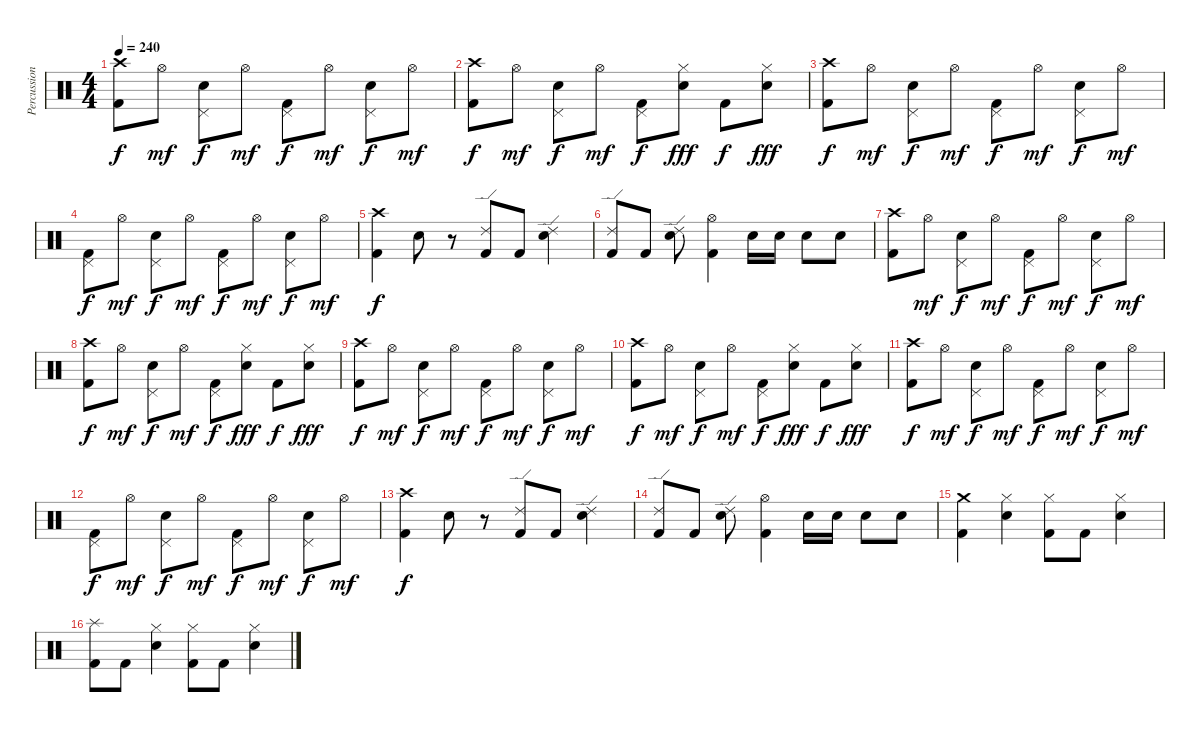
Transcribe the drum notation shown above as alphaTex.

\track ("Percussion" "Percussion") {instrument percussion}
\staff {score}
\articulation defaults
\ts (4 4)
\tempo 240
\clef neutral
\ks c
("Crash high (hit)" "Kick (hit) 2").8{dy f} "Hi-Hat (open)".8{dy mf} ("Pedal Hi-Hat (hit)" "Snare (hit) 2").8{dy f} "Hi-Hat (open)".8{dy mf} ("Pedal Hi-Hat (hit)" "Kick (hit) 2").8{dy f} "Hi-Hat (open)".8{dy mf} ("Pedal Hi-Hat (hit)" "Snare (hit) 2").8{dy f} "Hi-Hat (open)".8{dy mf} |
("Crash high (hit)" "Kick (hit) 2").8{dy f} "Hi-Hat (open)".8{dy mf} ("Pedal Hi-Hat (hit)" "Snare (hit) 2").8{dy f} "Hi-Hat (open)".8{dy mf} ("Pedal Hi-Hat (hit)" "Kick (hit) 2").8{dy f} ("Hi-Hat (closed)" "Snare (hit) 2").8{dy fff} "Kick (hit) 2".8{dy f} ("Hi-Hat (closed)" "Snare (hit) 2").8{dy fff} |
("Crash high (hit)" "Kick (hit) 2").8{dy f} "Hi-Hat (open)".8{dy mf} ("Pedal Hi-Hat (hit)" "Snare (hit) 2").8{dy f} "Hi-Hat (open)".8{dy mf} ("Pedal Hi-Hat (hit)" "Kick (hit) 2").8{dy f} "Hi-Hat (open)".8{dy mf} ("Pedal Hi-Hat (hit)" "Snare (hit) 2").8{dy f} "Hi-Hat (open)".8{dy mf} |
("Pedal Hi-Hat (hit)" "Kick (hit) 2").8{dy f} "Hi-Hat (open)".8{dy mf} ("Pedal Hi-Hat (hit)" "Snare (hit) 2").8{dy f} "Hi-Hat (open)".8{dy mf} ("Pedal Hi-Hat (hit)" "Kick (hit) 2").8{dy f} "Hi-Hat (open)".8{dy mf} ("Pedal Hi-Hat (hit)" "Snare (hit) 2").8{dy f} "Hi-Hat (open)".8{dy mf} |
("Crash high (hit)" "Kick (hit) 2").4{dy f} "Electric Snare (hit)".8 r.8 ("Ride (edge) 2" "Kick (hit) 2").8 "Kick (hit) 2".8 ("Ride (edge) 2" "Electric Snare (hit)").4 |
("Ride (edge) 2" "Kick (hit) 2").8 "Kick (hit) 2".8 ("Ride (edge) 2" "Electric Snare (hit)").8 ("Hi-Hat (open)" "Kick (hit) 2").4 "Snare (hit) 2".16 "Snare (hit) 2".16 "Snare (hit) 2".8 "Snare (hit) 2".8 |
("Crash high (hit)" "Kick (hit) 2").8 "Hi-Hat (open)".8{dy mf} ("Pedal Hi-Hat (hit)" "Snare (hit) 2").8{dy f} "Hi-Hat (open)".8{dy mf} ("Pedal Hi-Hat (hit)" "Kick (hit) 2").8{dy f} "Hi-Hat (open)".8{dy mf} ("Pedal Hi-Hat (hit)" "Snare (hit) 2").8{dy f} "Hi-Hat (open)".8{dy mf} |
("Crash high (hit)" "Kick (hit) 2").8{dy f} "Hi-Hat (open)".8{dy mf} ("Pedal Hi-Hat (hit)" "Snare (hit) 2").8{dy f} "Hi-Hat (open)".8{dy mf} ("Pedal Hi-Hat (hit)" "Kick (hit) 2").8{dy f} ("Hi-Hat (closed)" "Snare (hit) 2").8{dy fff} "Kick (hit) 2".8{dy f} ("Hi-Hat (closed)" "Snare (hit) 2").8{dy fff} |
("Crash high (hit)" "Kick (hit) 2").8{dy f} "Hi-Hat (open)".8{dy mf} ("Pedal Hi-Hat (hit)" "Snare (hit) 2").8{dy f} "Hi-Hat (open)".8{dy mf} ("Pedal Hi-Hat (hit)" "Kick (hit) 2").8{dy f} "Hi-Hat (open)".8{dy mf} ("Pedal Hi-Hat (hit)" "Snare (hit) 2").8{dy f} "Hi-Hat (open)".8{dy mf} |
("Crash high (hit)" "Kick (hit) 2").8{dy f} "Hi-Hat (open)".8{dy mf} ("Pedal Hi-Hat (hit)" "Snare (hit) 2").8{dy f} "Hi-Hat (open)".8{dy mf} ("Pedal Hi-Hat (hit)" "Kick (hit) 2").8{dy f} ("Hi-Hat (closed)" "Snare (hit) 2").8{dy fff} "Kick (hit) 2".8{dy f} ("Hi-Hat (closed)" "Snare (hit) 2").8{dy fff} |
("Crash high (hit)" "Kick (hit) 2").8{dy f} "Hi-Hat (open)".8{dy mf} ("Pedal Hi-Hat (hit)" "Snare (hit) 2").8{dy f} "Hi-Hat (open)".8{dy mf} ("Pedal Hi-Hat (hit)" "Kick (hit) 2").8{dy f} "Hi-Hat (open)".8{dy mf} ("Pedal Hi-Hat (hit)" "Snare (hit) 2").8{dy f} "Hi-Hat (open)".8{dy mf} |
("Pedal Hi-Hat (hit)" "Kick (hit) 2").8{dy f} "Hi-Hat (open)".8{dy mf} ("Pedal Hi-Hat (hit)" "Snare (hit) 2").8{dy f} "Hi-Hat (open)".8{dy mf} ("Pedal Hi-Hat (hit)" "Kick (hit) 2").8{dy f} "Hi-Hat (open)".8{dy mf} ("Pedal Hi-Hat (hit)" "Snare (hit) 2").8{dy f} "Hi-Hat (open)".8{dy mf} |
("Crash high (hit)" "Kick (hit) 2").4{dy f} "Electric Snare (hit)".8 r.8 ("Ride (edge) 2" "Kick (hit) 2").8 "Kick (hit) 2".8 ("Ride (edge) 2" "Electric Snare (hit)").4 |
("Ride (edge) 2" "Kick (hit) 2").8 "Kick (hit) 2".8 ("Ride (edge) 2" "Electric Snare (hit)").8 ("Hi-Hat (open)" "Kick (hit) 2").4 "Snare (hit) 2".16 "Snare (hit) 2".16 "Snare (hit) 2".8 "Snare (hit) 2".8 |
("Crash medium (hit)" "Kick (hit) 2").4 ("Hi-Hat (closed)" "Electric Snare (hit)").4 ("Hi-Hat (closed)" "Kick (hit) 2").8 "Kick (hit) 2".8 ("Hi-Hat (closed)" "Electric Snare (hit)").4 |
("Splash (hit)" "Kick (hit) 2").8 "Kick (hit) 2".8 ("Hi-Hat (closed)" "Electric Snare (hit)").4 ("Hi-Hat (closed)" "Kick (hit) 2").8 "Kick (hit) 2".8 ("Hi-Hat (closed)" "Electric Snare (hit)").4
